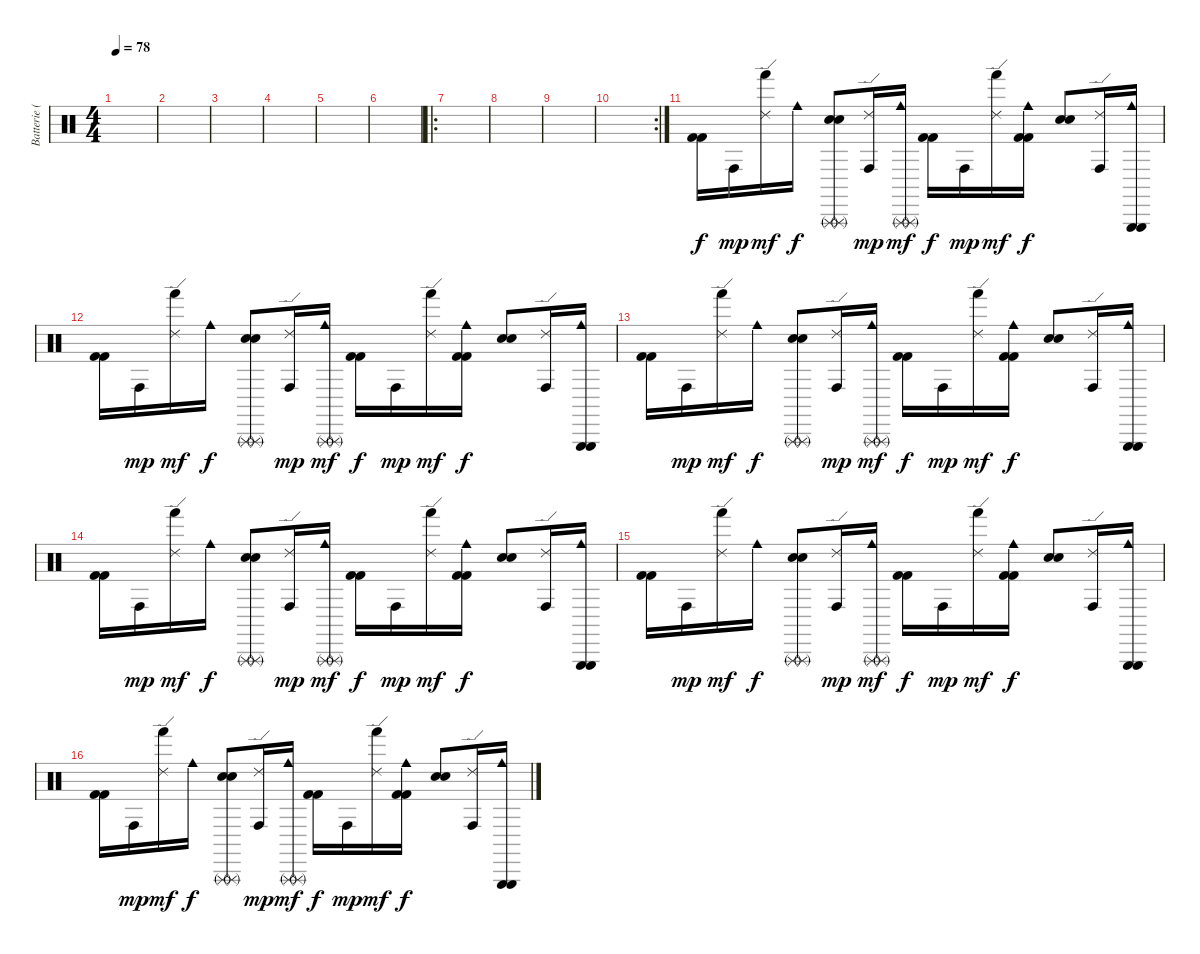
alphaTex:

\track ("Batterie ( Raphaël )" "Batterie (") {instrument percussion}
\staff {score}
\articulation defaults
\ts (4 4)
\tempo 78
\clef neutral
\ks c
|
|
|
|
|
|
\ro
|
|
|
\rc 2
|
("Kick (hit) 2" "Kick (hit) 2").16 "Conga high (hit)".16{dy mp} ("Ride (edge) 2" "Hand (hit)").16{dy mf} "Cowbell medium (hit)".16{dy f} ("Triangle (rnute)" "Triangle (rnute)" "Electric Snare (hit)" "Electric Snare (hit)").8 ("Ride (edge) 2" "Conga high (hit)").16{dy mp} ("Triangle (rnute)" "Triangle (rnute)" "Cowbell medium (hit)").16{dy mf} ("Kick (hit) 2" "Kick (hit) 2").16{dy f} "Conga high (hit)".16{dy mp} ("Ride (edge) 2" "Hand (hit)").16{dy mf} ("Cowbell medium (hit)" "Kick (hit) 2" "Kick (hit) 2").16{dy f} ("Electric Snare (hit)" "Electric Snare (hit)").8 ("Ride (edge) 2" "Conga high (hit)").16 ("Triangle (hit)" "Triangle (hit)" "Cowbell medium (hit)").16 |
("Kick (hit) 2" "Kick (hit) 2").16 "Conga high (hit)".16{dy mp} ("Ride (edge) 2" "Hand (hit)").16{dy mf} "Cowbell medium (hit)".16{dy f} ("Triangle (rnute)" "Triangle (rnute)" "Electric Snare (hit)" "Electric Snare (hit)").8 ("Ride (edge) 2" "Conga high (hit)").16{dy mp} ("Triangle (rnute)" "Triangle (rnute)" "Cowbell medium (hit)").16{dy mf} ("Kick (hit) 2" "Kick (hit) 2").16{dy f} "Conga high (hit)".16{dy mp} ("Ride (edge) 2" "Hand (hit)").16{dy mf} ("Cowbell medium (hit)" "Kick (hit) 2" "Kick (hit) 2").16{dy f} ("Electric Snare (hit)" "Electric Snare (hit)").8 ("Ride (edge) 2" "Conga high (hit)").16 ("Triangle (hit)" "Triangle (hit)" "Cowbell medium (hit)").16 |
("Kick (hit) 2" "Kick (hit) 2").16 "Conga high (hit)".16{dy mp} ("Ride (edge) 2" "Hand (hit)").16{dy mf} "Cowbell medium (hit)".16{dy f} ("Triangle (rnute)" "Triangle (rnute)" "Electric Snare (hit)" "Electric Snare (hit)").8 ("Ride (edge) 2" "Conga high (hit)").16{dy mp} ("Triangle (rnute)" "Triangle (rnute)" "Cowbell medium (hit)").16{dy mf} ("Kick (hit) 2" "Kick (hit) 2").16{dy f} "Conga high (hit)".16{dy mp} ("Ride (edge) 2" "Hand (hit)").16{dy mf} ("Cowbell medium (hit)" "Kick (hit) 2" "Kick (hit) 2").16{dy f} ("Electric Snare (hit)" "Electric Snare (hit)").8 ("Ride (edge) 2" "Conga high (hit)").16 ("Triangle (hit)" "Triangle (hit)" "Cowbell medium (hit)").16 |
("Kick (hit) 2" "Kick (hit) 2").16 "Conga high (hit)".16{dy mp} ("Ride (edge) 2" "Hand (hit)").16{dy mf} "Cowbell medium (hit)".16{dy f} ("Triangle (rnute)" "Triangle (rnute)" "Electric Snare (hit)" "Electric Snare (hit)").8 ("Ride (edge) 2" "Conga high (hit)").16{dy mp} ("Triangle (rnute)" "Triangle (rnute)" "Cowbell medium (hit)").16{dy mf} ("Kick (hit) 2" "Kick (hit) 2").16{dy f} "Conga high (hit)".16{dy mp} ("Ride (edge) 2" "Hand (hit)").16{dy mf} ("Cowbell medium (hit)" "Kick (hit) 2" "Kick (hit) 2").16{dy f} ("Electric Snare (hit)" "Electric Snare (hit)").8 ("Ride (edge) 2" "Conga high (hit)").16 ("Triangle (hit)" "Triangle (hit)" "Cowbell medium (hit)").16 |
("Kick (hit) 2" "Kick (hit) 2").16 "Conga high (hit)".16{dy mp} ("Ride (edge) 2" "Hand (hit)").16{dy mf} "Cowbell medium (hit)".16{dy f} ("Triangle (rnute)" "Triangle (rnute)" "Electric Snare (hit)" "Electric Snare (hit)").8 ("Ride (edge) 2" "Conga high (hit)").16{dy mp} ("Triangle (rnute)" "Triangle (rnute)" "Cowbell medium (hit)").16{dy mf} ("Kick (hit) 2" "Kick (hit) 2").16{dy f} "Conga high (hit)".16{dy mp} ("Ride (edge) 2" "Hand (hit)").16{dy mf} ("Cowbell medium (hit)" "Kick (hit) 2" "Kick (hit) 2").16{dy f} ("Electric Snare (hit)" "Electric Snare (hit)").8 ("Ride (edge) 2" "Conga high (hit)").16 ("Triangle (hit)" "Triangle (hit)" "Cowbell medium (hit)").16 |
("Kick (hit) 2" "Kick (hit) 2").16 "Conga high (hit)".16{dy mp} ("Ride (edge) 2" "Hand (hit)").16{dy mf} "Cowbell medium (hit)".16{dy f} ("Triangle (rnute)" "Triangle (rnute)" "Electric Snare (hit)" "Electric Snare (hit)").8 ("Ride (edge) 2" "Conga high (hit)").16{dy mp} ("Triangle (rnute)" "Triangle (rnute)" "Cowbell medium (hit)").16{dy mf} ("Kick (hit) 2" "Kick (hit) 2").16{dy f} "Conga high (hit)".16{dy mp} ("Ride (edge) 2" "Hand (hit)").16{dy mf} ("Cowbell medium (hit)" "Kick (hit) 2" "Kick (hit) 2").16{dy f} ("Electric Snare (hit)" "Electric Snare (hit)").8 ("Ride (edge) 2" "Conga high (hit)").16 ("Triangle (hit)" "Triangle (hit)" "Cowbell medium (hit)").16
